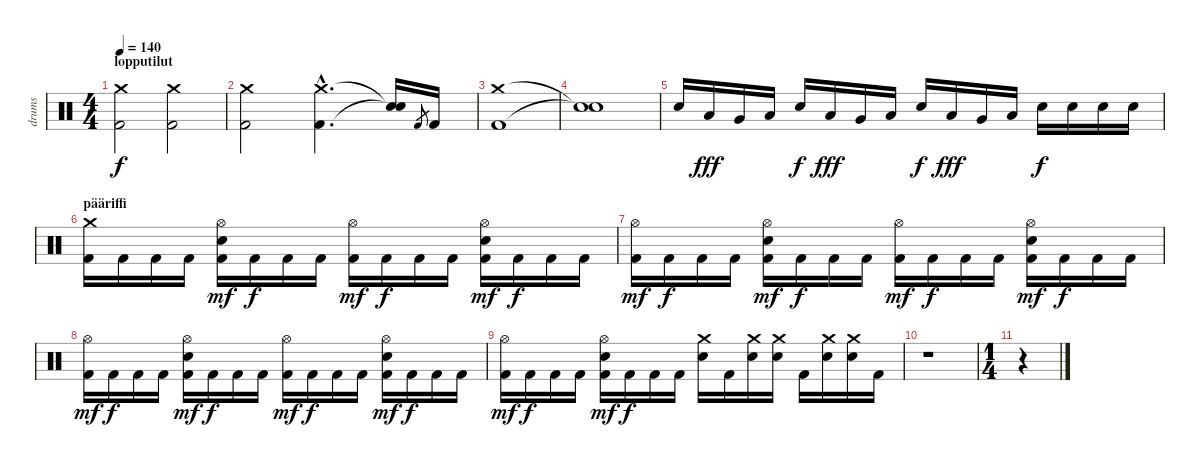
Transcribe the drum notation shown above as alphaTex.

\track ("drums" "drums") {instrument percussion}
\staff {score}
\articulation defaults
\ts (4 4)
\section ("" "lopputilut")
\tempo 140
\clef neutral
\ks c
("Kick (hit) 2" "Crash medium (hit)").2{dy f} ("Kick (hit) 2" "Crash medium (hit)").2 |
("Kick (hit) 2" "Crash medium (hit)").2 ("Kick (hit) 2"{hac} "Crash medium (hit)"{hac}).4{d} ("Snare (hit)"{t} "Snare (hit)"{t}).16 "Kick (hit) 2".8{gr} "Kick (hit) 2".16 |
("Kick (hit) 2" "Crash medium (hit)").1 |
("Snare (hit)"{t} "Snare (hit)"{t}).1 |
"Snare (hit) 2".16 "Low Tom (hit)".16{dy fff} "Very Low Tom (hit)".16 "Low Floor Tom (hit)".16 "Snare (hit) 2".16{dy f} "Low Tom (hit)".16{dy fff} "Very Low Tom (hit)".16 "Low Floor Tom (hit)".16 "Snare (hit) 2".16{dy f} "Low Tom (hit)".16{dy fff} "Very Low Tom (hit)".16 "Low Floor Tom (hit)".16 "Snare (hit) 2".16{dy f} "Snare (hit) 2".16 "Snare (hit) 2".16 "Snare (hit) 2".16 |
\section ("" "pääriffi")
("Kick (hit) 2" "Crash medium (hit)").16 "Kick (hit) 2".16 "Kick (hit) 2".16 "Kick (hit) 2".16 ("Kick (hit) 2" "Hi-Hat (open)" "Snare (hit) 2").16{dy mf} "Kick (hit) 2".16{dy f} "Kick (hit) 2".16 "Kick (hit) 2".16 ("Kick (hit) 2" "Hi-Hat (open)").16{dy mf} "Kick (hit) 2".16{dy f} "Kick (hit) 2".16 "Kick (hit) 2".16 ("Kick (hit) 2" "Hi-Hat (open)" "Snare (hit) 2").16{dy mf} "Kick (hit) 2".16{dy f} "Kick (hit) 2".16 "Kick (hit) 2".16 |
("Kick (hit) 2" "Hi-Hat (open)").16{dy mf} "Kick (hit) 2".16{dy f} "Kick (hit) 2".16 "Kick (hit) 2".16 ("Kick (hit) 2" "Hi-Hat (open)" "Snare (hit) 2").16{dy mf} "Kick (hit) 2".16{dy f} "Kick (hit) 2".16 "Kick (hit) 2".16 ("Kick (hit) 2" "Hi-Hat (open)").16{dy mf} "Kick (hit) 2".16{dy f} "Kick (hit) 2".16 "Kick (hit) 2".16 ("Kick (hit) 2" "Hi-Hat (open)" "Snare (hit) 2").16{dy mf} "Kick (hit) 2".16{dy f} "Kick (hit) 2".16 "Kick (hit) 2".16 |
("Kick (hit) 2" "Hi-Hat (open)").16{dy mf} "Kick (hit) 2".16{dy f} "Kick (hit) 2".16 "Kick (hit) 2".16 ("Kick (hit) 2" "Hi-Hat (open)" "Snare (hit) 2").16{dy mf} "Kick (hit) 2".16{dy f} "Kick (hit) 2".16 "Kick (hit) 2".16 ("Kick (hit) 2" "Hi-Hat (open)").16{dy mf} "Kick (hit) 2".16{dy f} "Kick (hit) 2".16 "Kick (hit) 2".16 ("Kick (hit) 2" "Hi-Hat (open)" "Snare (hit) 2").16{dy mf} "Kick (hit) 2".16{dy f} "Kick (hit) 2".16 "Kick (hit) 2".16 |
("Kick (hit) 2" "Hi-Hat (open)").16{dy mf} "Kick (hit) 2".16{dy f} "Kick (hit) 2".16 "Kick (hit) 2".16 ("Kick (hit) 2" "Hi-Hat (open)" "Snare (hit) 2").16{dy mf} "Kick (hit) 2".16{dy f} "Kick (hit) 2".16 "Kick (hit) 2".16 ("Crash medium (hit)" "Snare (hit) 2").16 "Kick (hit) 2".16 ("Crash medium (hit)" "Snare (hit) 2").16 ("Crash medium (hit)" "Snare (hit) 2").16 "Kick (hit) 2".16 ("Crash medium (hit)" "Snare (hit) 2").16 ("Crash medium (hit)" "Snare (hit) 2").16 "Kick (hit) 2".16 |
r.1 |
\ts (1 4)
r.4
